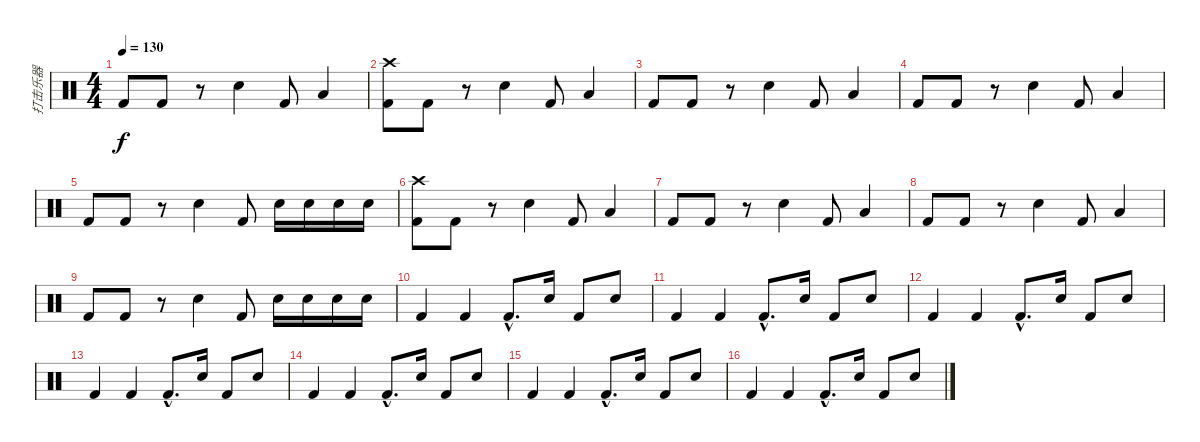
\track ("打击乐器" "打击乐器") {instrument percussion}
\staff {score}
\articulation defaults
\ts (4 4)
\tempo 130
\clef neutral
\ks c "Kick (hit) 2".8{dy f} "Kick (hit) 2".8
r.8 "Snare (hit) 2".4 "Kick (hit) 2".8 "Low Floor Tom (hit)".4 |
("Crash high (hit)" "Kick (hit) 2").8 "Kick (hit) 2".8 r.8 "Snare (hit) 2".4 "Kick (hit) 2".8 "Low Floor Tom (hit)".4 |
"Kick (hit) 2".8 "Kick (hit) 2".8 r.8 "Snare (hit) 2".4 "Kick (hit) 2".8 "Low Floor Tom (hit)".4 |
"Kick (hit) 2".8 "Kick (hit) 2".8 r.8 "Snare (hit) 2".4 "Kick (hit) 2".8 "Low Floor Tom (hit)".4 |
"Kick (hit) 2".8 "Kick (hit) 2".8 r.8 "Snare (hit) 2".4 "Kick (hit) 2".8 "Snare (hit) 2".16 "Snare (hit) 2".16 "Snare (hit) 2".16 "Snare (hit) 2".16 |
("Crash high (hit)" "Kick (hit) 2").8 "Kick (hit) 2".8 r.8 "Snare (hit) 2".4 "Kick (hit) 2".8 "Low Floor Tom (hit)".4 |
"Kick (hit) 2".8 "Kick (hit) 2".8 r.8 "Snare (hit) 2".4 "Kick (hit) 2".8 "Low Floor Tom (hit)".4 |
"Kick (hit) 2".8 "Kick (hit) 2".8 r.8 "Snare (hit) 2".4 "Kick (hit) 2".8 "Low Floor Tom (hit)".4 |
"Kick (hit) 2".8 "Kick (hit) 2".8 r.8 "Snare (hit) 2".4 "Kick (hit) 2".8 "Snare (hit) 2".16 "Snare (hit) 2".16 "Snare (hit) 2".16 "Snare (hit) 2".16 |
"Kick (hit) 2".4 "Kick (hit) 2".4 "Kick (hit) 2"{hac}.8{d} "Snare (hit) 2".16 "Kick (hit) 2".8 "Snare (hit) 2".8 |
"Kick (hit) 2".4 "Kick (hit) 2".4 "Kick (hit) 2"{hac}.8{d} "Snare (hit) 2".16 "Kick (hit) 2".8 "Snare (hit) 2".8 |
"Kick (hit) 2".4 "Kick (hit) 2".4 "Kick (hit) 2"{hac}.8{d} "Snare (hit) 2".16 "Kick (hit) 2".8 "Snare (hit) 2".8 |
"Kick (hit) 2".4 "Kick (hit) 2".4 "Kick (hit) 2"{hac}.8{d} "Snare (hit) 2".16 "Kick (hit) 2".8 "Snare (hit) 2".8 |
"Kick (hit) 2".4 "Kick (hit) 2".4 "Kick (hit) 2"{hac}.8{d} "Snare (hit) 2".16 "Kick (hit) 2".8 "Snare (hit) 2".8 |
"Kick (hit) 2".4 "Kick (hit) 2".4 "Kick (hit) 2"{hac}.8{d} "Snare (hit) 2".16 "Kick (hit) 2".8 "Snare (hit) 2".8 |
"Kick (hit) 2".4 "Kick (hit) 2".4 "Kick (hit) 2"{hac}.8{d} "Snare (hit) 2".16 "Kick (hit) 2".8 "Snare (hit) 2".8
